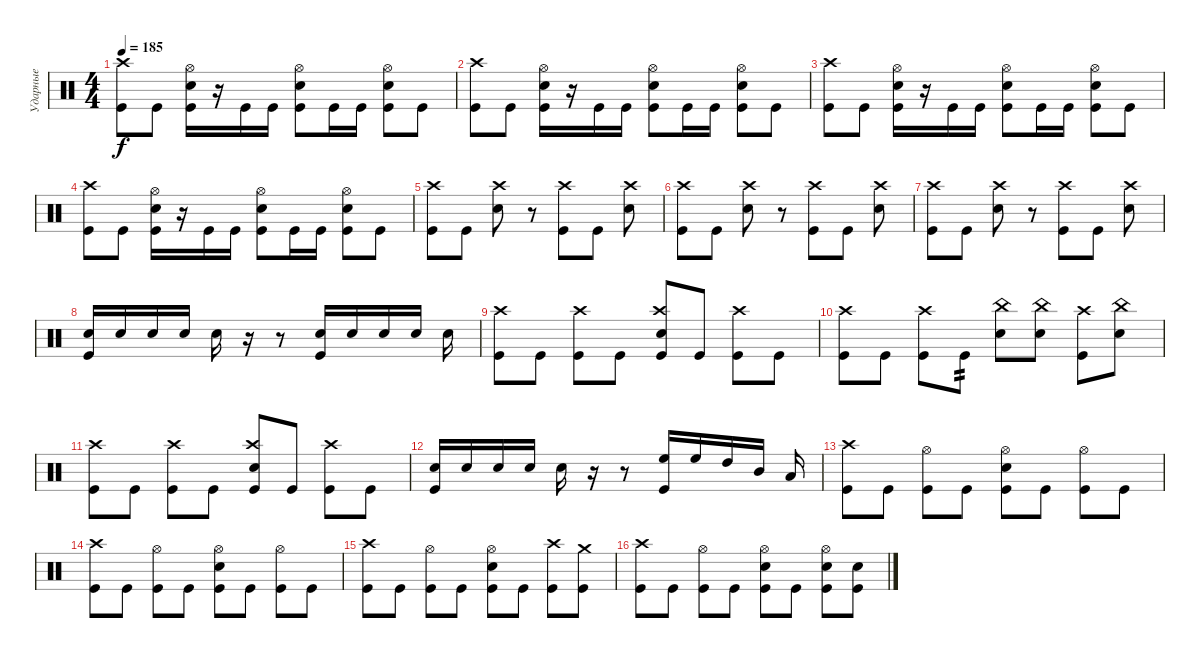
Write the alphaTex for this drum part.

\track ("Ударные" "Ударные") {instrument percussion}
\staff {score}
\articulation defaults
\ts (4 4)
\tempo 185
\clef neutral
\ks c
("Kick (hit)" "Crash high (hit)").8{dy f} "Kick (hit)".8 ("Kick (hit)" "Snare (hit) 2" "Hi-Hat (open)").16 r.16 "Kick (hit)".16 "Kick (hit)".16 ("Kick (hit)" "Snare (hit) 2" "Hi-Hat (open)").8 "Kick (hit)".16 "Kick (hit)".16 ("Kick (hit)" "Snare (hit) 2" "Hi-Hat (open)").8 "Kick (hit)".8 |
("Kick (hit)" "Crash high (hit)").8 "Kick (hit)".8 ("Kick (hit)" "Snare (hit) 2" "Hi-Hat (open)").16 r.16 "Kick (hit)".16 "Kick (hit)".16 ("Kick (hit)" "Snare (hit) 2" "Hi-Hat (open)").8 "Kick (hit)".16 "Kick (hit)".16 ("Kick (hit)" "Snare (hit) 2" "Hi-Hat (open)").8 "Kick (hit)".8 |
("Kick (hit)" "Crash high (hit)").8 "Kick (hit)".8 ("Kick (hit)" "Snare (hit) 2" "Hi-Hat (open)").16 r.16 "Kick (hit)".16 "Kick (hit)".16 ("Kick (hit)" "Snare (hit) 2" "Hi-Hat (open)").8 "Kick (hit)".16 "Kick (hit)".16 ("Kick (hit)" "Snare (hit) 2" "Hi-Hat (open)").8 "Kick (hit)".8 |
("Kick (hit)" "Crash high (hit)").8 "Kick (hit)".8 ("Kick (hit)" "Snare (hit) 2" "Hi-Hat (open)").16 r.16 "Kick (hit)".16 "Kick (hit)".16 ("Kick (hit)" "Snare (hit) 2" "Hi-Hat (open)").8 "Kick (hit)".16 "Kick (hit)".16 ("Kick (hit)" "Snare (hit) 2" "Hi-Hat (open)").8 "Kick (hit)".8 |
("Crash high (hit)" "Kick (hit)").8 "Kick (hit)".8 ("Crash high (hit)" "Snare (hit) 2").8 r.8 ("Crash high (hit)" "Kick (hit)").8 "Kick (hit)".8 ("Crash high (hit)" "Snare (hit) 2").8 |
("Crash high (hit)" "Kick (hit)").8 "Kick (hit)".8 ("Crash high (hit)" "Snare (hit) 2").8 r.8 ("Crash high (hit)" "Kick (hit)").8 "Kick (hit)".8 ("Crash high (hit)" "Snare (hit) 2").8 |
("Crash high (hit)" "Kick (hit)").8 "Kick (hit)".8 ("Crash high (hit)" "Snare (hit) 2").8 r.8 ("Crash high (hit)" "Kick (hit)").8 "Kick (hit)".8 ("Crash high (hit)" "Snare (hit) 2").8 |
("Snare (hit) 2" "Kick (hit)").16 "Snare (hit) 2".16 "Snare (hit) 2".16 "Snare (hit) 2".16 "Snare (hit) 2".16 r.16 r.8 ("Snare (hit) 2" "Kick (hit)").16 "Snare (hit) 2".16 "Snare (hit) 2".16 "Snare (hit) 2".16 "Snare (hit) 2".16 |
("Crash high (hit)" "Kick (hit)").8 "Kick (hit)".8 ("Crash high (hit)" "Kick (hit)").8 "Kick (hit)".8 ("Crash high (hit)" "Kick (hit)" "Snare (hit) 2").8 "Kick (hit)".8 ("Crash high (hit)" "Kick (hit)").8 "Kick (hit)".8 |
("Crash high (hit)" "Kick (hit)").8 "Kick (hit)".8 ("Crash high (hit)" "Kick (hit)").8 "Kick (hit)".8{tp 2} ("China (hit)" "Snare (hit) 2").8 ("China (hit)" "Snare (hit) 2").8 ("Crash high (hit)" "Kick (hit)").8 ("China (hit)" "Snare (hit) 2").8 |
("Crash high (hit)" "Kick (hit)").8 "Kick (hit)".8 ("Crash high (hit)" "Kick (hit)").8 "Kick (hit)".8 ("Crash high (hit)" "Kick (hit)" "Snare (hit) 2").8 "Kick (hit)".8 ("Crash high (hit)" "Kick (hit)").8 "Kick (hit)".8 |
("Snare (hit) 2" "Kick (hit)").16 "Snare (hit) 2".16 "Snare (hit) 2".16 "Snare (hit) 2".16 "Snare (hit) 2".16 r.16 r.8 ("High Floor Tom (hit)" "Kick (hit)").16 "High Floor Tom (hit)".16 "High Tom (hit)".16 "Mid Tom (hit)".16 "Low Tom (hit)".16 |
("Crash high (hit)" "Kick (hit)").8 "Kick (hit)".8 ("Hi-Hat (open)" "Kick (hit)").8 "Kick (hit)".8 ("Hi-Hat (open)" "Kick (hit)" "Snare (hit) 2").8 "Kick (hit)".8 ("Hi-Hat (open)" "Kick (hit)").8 "Kick (hit)".8 |
("Crash high (hit)" "Kick (hit)").8 "Kick (hit)".8 ("Hi-Hat (open)" "Kick (hit)").8 "Kick (hit)".8 ("Hi-Hat (open)" "Kick (hit)" "Snare (hit) 2").8 "Kick (hit)".8 ("Hi-Hat (open)" "Kick (hit)").8 "Kick (hit)".8 |
("Crash high (hit)" "Kick (hit)").8 "Kick (hit)".8 ("Hi-Hat (open)" "Kick (hit)").8 "Kick (hit)".8 ("Hi-Hat (open)" "Kick (hit)" "Snare (hit) 2").8 "Kick (hit)".8 ("Crash high (hit)" "Kick (hit)").8 ("Crash medium (hit)" "Kick (hit)").8 |
("Crash high (hit)" "Kick (hit)").8 "Kick (hit)".8 ("Hi-Hat (open)" "Kick (hit)").8 "Kick (hit)".8 ("Hi-Hat (open)" "Kick (hit)" "Snare (hit) 2").8 "Kick (hit)".8 ("Hi-Hat (open)" "Kick (hit)" "Snare (hit) 2").8 ("Kick (hit)" "Snare (hit) 2").8
